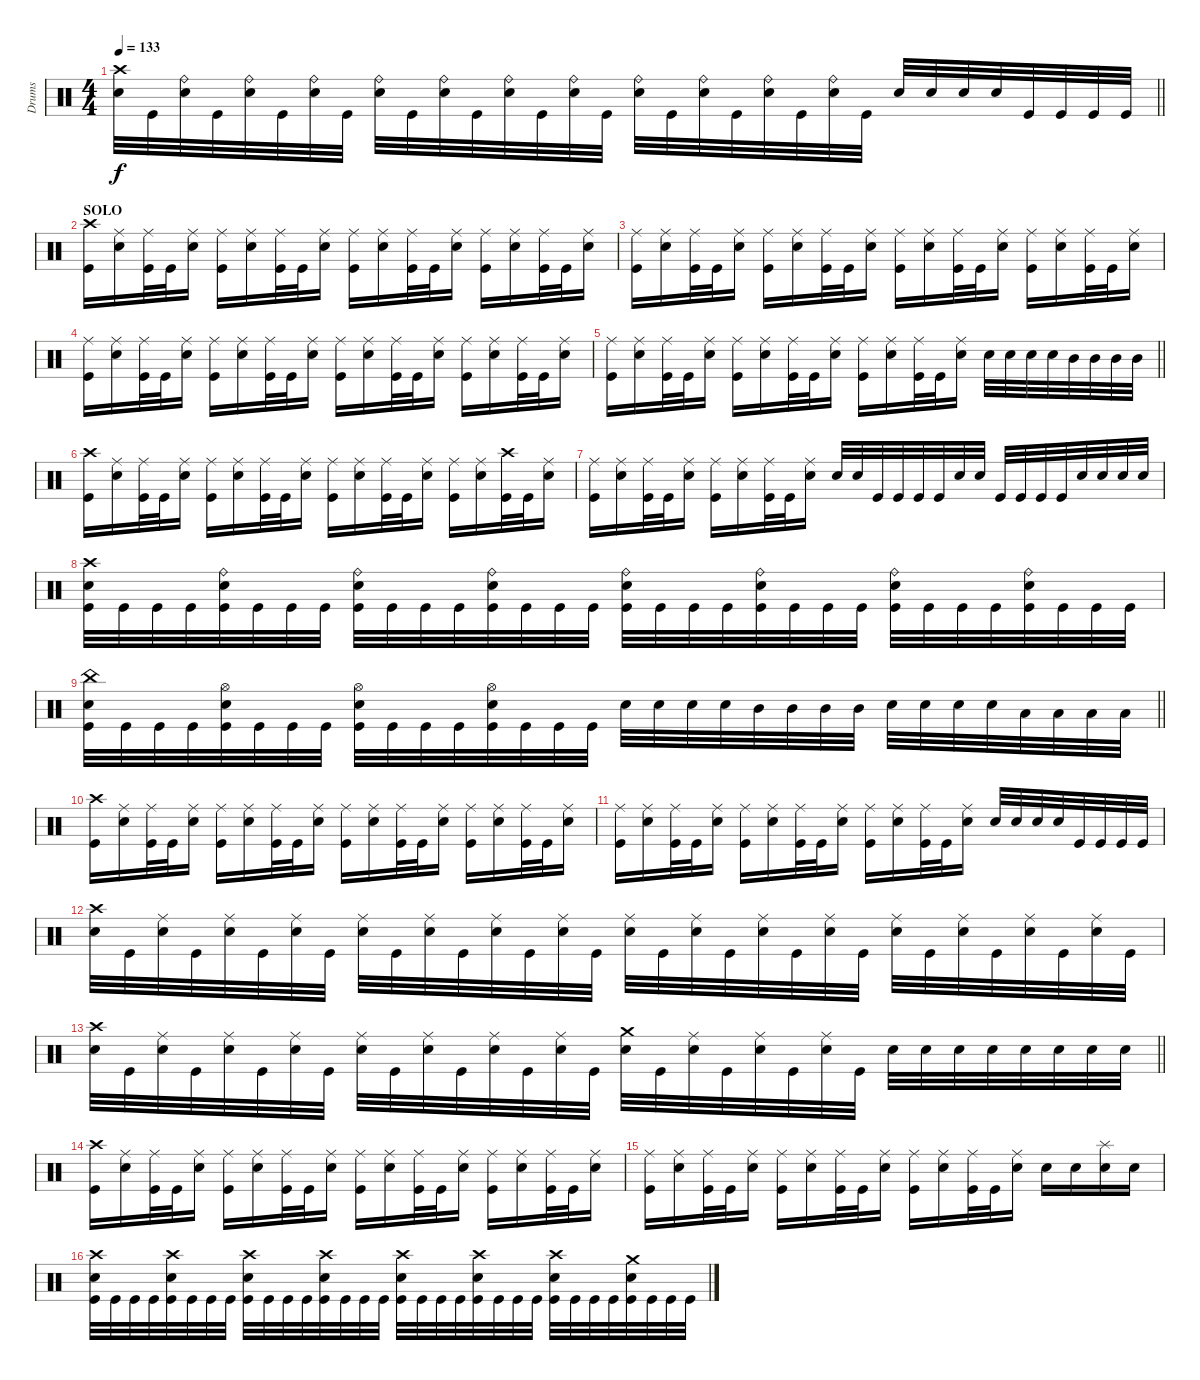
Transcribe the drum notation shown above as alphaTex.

\track ("Drums" "Drums") {instrument percussion}
\staff
\articulation defaults
\ts (4 4)
\tempo 133
\clef neutral
\barLineRight lightlight
\ks c
("Crash high (hit)" "Electric Snare (hit)").32{dy f} "Kick (hit)".32 ("Ride (bell)" "Electric Snare (hit)").32 "Kick (hit)".32 ("Ride (bell)" "Electric Snare (hit)").32 "Kick (hit)".32 ("Ride (bell)" "Electric Snare (hit)").32 "Kick (hit)".32 ("Ride (bell)" "Electric Snare (hit)").32 "Kick (hit)".32 ("Ride (bell)" "Electric Snare (hit)").32 "Kick (hit)".32 ("Ride (bell)" "Electric Snare (hit)").32 "Kick (hit)".32 ("Ride (bell)" "Electric Snare (hit)").32 "Kick (hit)".32 ("Ride (bell)" "Electric Snare (hit)").32 "Kick (hit)".32 ("Ride (bell)" "Electric Snare (hit)").32 "Kick (hit)".32 ("Ride (bell)" "Electric Snare (hit)").32 "Kick (hit)".32 ("Ride (bell)" "Electric Snare (hit)").32 "Kick (hit)".32 "Electric Snare (hit)".32 "Electric Snare (hit)".32 "Electric Snare (hit)".32 "Electric Snare (hit)".32 "Kick (hit)".32 "Kick (hit)".32 "Kick (hit)".32 "Kick (hit)".32 |
\section ("" "SOLO")
("Crash high (hit)" "Kick (hit)").16 ("Ride (middle)" "Electric Snare (hit)").16 ("Ride (middle)" "Kick (hit)").32 "Kick (hit)".32 ("Ride (middle)" "Electric Snare (hit)").16 ("Ride (middle)" "Kick (hit)").16 ("Ride (middle)" "Electric Snare (hit)").16 ("Ride (middle)" "Kick (hit)").32 "Kick (hit)".32 ("Ride (middle)" "Electric Snare (hit)").16 ("Ride (middle)" "Kick (hit)").16 ("Ride (middle)" "Electric Snare (hit)").16 ("Ride (middle)" "Kick (hit)").32 "Kick (hit)".32 ("Ride (middle)" "Electric Snare (hit)").16 ("Ride (middle)" "Kick (hit)").16 ("Ride (middle)" "Electric Snare (hit)").16 ("Ride (middle)" "Kick (hit)").32 "Kick (hit)".32 ("Ride (middle)" "Electric Snare (hit)").16 |
("Ride (middle)" "Kick (hit)").16 ("Ride (middle)" "Electric Snare (hit)").16 ("Ride (middle)" "Kick (hit)").32 "Kick (hit)".32 ("Ride (middle)" "Electric Snare (hit)").16 ("Ride (middle)" "Kick (hit)").16 ("Ride (middle)" "Electric Snare (hit)").16 ("Ride (middle)" "Kick (hit)").32 "Kick (hit)".32 ("Ride (middle)" "Electric Snare (hit)").16 ("Ride (middle)" "Kick (hit)").16 ("Ride (middle)" "Electric Snare (hit)").16 ("Ride (middle)" "Kick (hit)").32 "Kick (hit)".32 ("Ride (middle)" "Electric Snare (hit)").16 ("Ride (middle)" "Kick (hit)").16 ("Ride (middle)" "Electric Snare (hit)").16 ("Ride (middle)" "Kick (hit)").32 "Kick (hit)".32 ("Ride (middle)" "Electric Snare (hit)").16 |
("Ride (middle)" "Kick (hit)").16 ("Ride (middle)" "Electric Snare (hit)").16 ("Ride (middle)" "Kick (hit)").32 "Kick (hit)".32 ("Ride (middle)" "Electric Snare (hit)").16 ("Ride (middle)" "Kick (hit)").16 ("Ride (middle)" "Electric Snare (hit)").16 ("Ride (middle)" "Kick (hit)").32 "Kick (hit)".32 ("Ride (middle)" "Electric Snare (hit)").16 ("Ride (middle)" "Kick (hit)").16 ("Ride (middle)" "Electric Snare (hit)").16 ("Ride (middle)" "Kick (hit)").32 "Kick (hit)".32 ("Ride (middle)" "Electric Snare (hit)").16 ("Ride (middle)" "Kick (hit)").16 ("Ride (middle)" "Electric Snare (hit)").16 ("Ride (middle)" "Kick (hit)").32 "Kick (hit)".32 ("Ride (middle)" "Electric Snare (hit)").16 |
\barLineRight lightlight
("Ride (middle)" "Kick (hit)").16 ("Ride (middle)" "Electric Snare (hit)").16 ("Ride (middle)" "Kick (hit)").32 "Kick (hit)".32 ("Ride (middle)" "Electric Snare (hit)").16 ("Ride (middle)" "Kick (hit)").16 ("Ride (middle)" "Electric Snare (hit)").16 ("Ride (middle)" "Kick (hit)").32 "Kick (hit)".32 ("Ride (middle)" "Electric Snare (hit)").16 ("Ride (middle)" "Kick (hit)").16 ("Ride (middle)" "Electric Snare (hit)").16 ("Ride (middle)" "Kick (hit)").32 "Kick (hit)".32 ("Ride (middle)" "Electric Snare (hit)").16 "Electric Snare (hit)".32 "Electric Snare (hit)".32 "Electric Snare (hit)".32 "Electric Snare (hit)".32 "Mid Tom (hit)".32 "Mid Tom (hit)".32 "Mid Tom (hit)".32 "Mid Tom (hit)".32 |
("Crash high (hit)" "Kick (hit)").16 ("Ride (middle)" "Electric Snare (hit)").16 ("Ride (middle)" "Kick (hit)").32 "Kick (hit)".32 ("Ride (middle)" "Electric Snare (hit)").16 ("Ride (middle)" "Kick (hit)").16 ("Ride (middle)" "Electric Snare (hit)").16 ("Ride (middle)" "Kick (hit)").32 "Kick (hit)".32 ("Ride (middle)" "Electric Snare (hit)").16 ("Ride (middle)" "Kick (hit)").16 ("Ride (middle)" "Electric Snare (hit)").16 ("Ride (middle)" "Kick (hit)").32 "Kick (hit)".32 ("Ride (middle)" "Electric Snare (hit)").16 ("Ride (middle)" "Kick (hit)").16 ("Ride (middle)" "Electric Snare (hit)").16 ("Crash high (hit)" "Kick (hit)").32 "Kick (hit)".32 ("Ride (middle)" "Electric Snare (hit)").16 |
("Ride (middle)" "Kick (hit)").16 ("Ride (middle)" "Electric Snare (hit)").16 ("Ride (middle)" "Kick (hit)").32 "Kick (hit)".32 ("Ride (middle)" "Electric Snare (hit)").16 ("Ride (middle)" "Kick (hit)").16 ("Ride (middle)" "Electric Snare (hit)").16 ("Ride (middle)" "Kick (hit)").32 "Kick (hit)".32 ("Ride (middle)" "Electric Snare (hit)").16 "Electric Snare (hit)".32 "Electric Snare (hit)".32 "Kick (hit)".32 "Kick (hit)".32 "Kick (hit)".32 "Kick (hit)".32 "Electric Snare (hit)".32 "Electric Snare (hit)".32 "Kick (hit)".32 "Kick (hit)".32 "Kick (hit)".32 "Kick (hit)".32 "Electric Snare (hit)".32 "Electric Snare (hit)".32 "Electric Snare (hit)".32 "Electric Snare (hit)".32 |
("Crash high (hit)" "Electric Snare (hit)" "Kick (hit)").32 "Kick (hit)".32 "Kick (hit)".32 "Kick (hit)".32 ("Ride (bell)" "Electric Snare (hit)" "Kick (hit)").32 "Kick (hit)".32 "Kick (hit)".32 "Kick (hit)".32 ("Ride (bell)" "Electric Snare (hit)" "Kick (hit)").32 "Kick (hit)".32 "Kick (hit)".32 "Kick (hit)".32 ("Ride (bell)" "Electric Snare (hit)" "Kick (hit)").32 "Kick (hit)".32 "Kick (hit)".32 "Kick (hit)".32 ("Ride (bell)" "Electric Snare (hit)" "Kick (hit)").32 "Kick (hit)".32 "Kick (hit)".32 "Kick (hit)".32 ("Ride (bell)" "Electric Snare (hit)" "Kick (hit)").32 "Kick (hit)".32 "Kick (hit)".32 "Kick (hit)".32 ("Ride (bell)" "Electric Snare (hit)" "Kick (hit)").32 "Kick (hit)".32 "Kick (hit)".32 "Kick (hit)".32 ("Ride (bell)" "Electric Snare (hit)" "Kick (hit)").32 "Kick (hit)".32 "Kick (hit)".32 "Kick (hit)".32 |
\barLineRight lightlight
("China (hit)" "Electric Snare (hit)" "Kick (hit)").32 "Kick (hit)".32 "Kick (hit)".32 "Kick (hit)".32 ("Hi-Hat (open)" "Electric Snare (hit)" "Kick (hit)").32 "Kick (hit)".32 "Kick (hit)".32 "Kick (hit)".32 ("Hi-Hat (open)" "Electric Snare (hit)" "Kick (hit)").32 "Kick (hit)".32 "Kick (hit)".32 "Kick (hit)".32 ("Hi-Hat (open)" "Electric Snare (hit)" "Kick (hit)").32 "Kick (hit)".32 "Kick (hit)".32 "Kick (hit)".32 "Electric Snare (hit)".32 "Electric Snare (hit)".32 "Electric Snare (hit)".32 "Electric Snare (hit)".32 "Mid Tom (hit)".32 "Mid Tom (hit)".32 "Mid Tom (hit)".32 "Mid Tom (hit)".32 "Electric Snare (hit)".32 "Electric Snare (hit)".32 "Electric Snare (hit)".32 "Electric Snare (hit)".32 "Low Tom (hit)".32 "Low Tom (hit)".32 "Low Tom (hit)".32 "Low Tom (hit)".32 |
("Crash high (hit)" "Kick (hit)").16 ("Ride (middle)" "Electric Snare (hit)").16 ("Ride (middle)" "Kick (hit)").32 "Kick (hit)".32 ("Ride (middle)" "Electric Snare (hit)").16 ("Ride (middle)" "Kick (hit)").16 ("Ride (middle)" "Electric Snare (hit)").16 ("Ride (middle)" "Kick (hit)").32 "Kick (hit)".32 ("Ride (middle)" "Electric Snare (hit)").16 ("Ride (middle)" "Kick (hit)").16 ("Ride (middle)" "Electric Snare (hit)").16 ("Ride (middle)" "Kick (hit)").32 "Kick (hit)".32 ("Ride (middle)" "Electric Snare (hit)").16 ("Ride (middle)" "Kick (hit)").16 ("Ride (middle)" "Electric Snare (hit)").16 ("Ride (middle)" "Kick (hit)").32 "Kick (hit)".32 ("Ride (middle)" "Electric Snare (hit)").16 |
("Ride (middle)" "Kick (hit)").16 ("Ride (middle)" "Electric Snare (hit)").16 ("Ride (middle)" "Kick (hit)").32 "Kick (hit)".32 ("Ride (middle)" "Electric Snare (hit)").16 ("Ride (middle)" "Kick (hit)").16 ("Ride (middle)" "Electric Snare (hit)").16 ("Ride (middle)" "Kick (hit)").32 "Kick (hit)".32 ("Ride (middle)" "Electric Snare (hit)").16 ("Ride (middle)" "Kick (hit)").16 ("Ride (middle)" "Electric Snare (hit)").16 ("Ride (middle)" "Kick (hit)").32 "Kick (hit)".32 ("Ride (middle)" "Electric Snare (hit)").16 "Electric Snare (hit)".32 "Electric Snare (hit)".32 "Electric Snare (hit)".32 "Electric Snare (hit)".32 "Kick (hit)".32 "Kick (hit)".32 "Kick (hit)".32 "Kick (hit)".32 |
("Crash high (hit)" "Electric Snare (hit)").32 "Kick (hit)".32 ("Ride (middle)" "Electric Snare (hit)").32 "Kick (hit)".32 ("Ride (middle)" "Electric Snare (hit)").32 "Kick (hit)".32 ("Ride (middle)" "Electric Snare (hit)").32 "Kick (hit)".32 ("Ride (middle)" "Electric Snare (hit)").32 "Kick (hit)".32 ("Ride (middle)" "Electric Snare (hit)").32 "Kick (hit)".32 ("Ride (middle)" "Electric Snare (hit)").32 "Kick (hit)".32 ("Ride (middle)" "Electric Snare (hit)").32 "Kick (hit)".32 ("Ride (middle)" "Electric Snare (hit)").32 "Kick (hit)".32 ("Ride (middle)" "Electric Snare (hit)").32 "Kick (hit)".32 ("Ride (middle)" "Electric Snare (hit)").32 "Kick (hit)".32 ("Ride (middle)" "Electric Snare (hit)").32 "Kick (hit)".32 ("Ride (middle)" "Electric Snare (hit)").32 "Kick (hit)".32 ("Ride (middle)" "Electric Snare (hit)").32 "Kick (hit)".32 ("Ride (middle)" "Electric Snare (hit)").32 "Kick (hit)".32 ("Ride (middle)" "Electric Snare (hit)").32 "Kick (hit)".32 |
\barLineRight lightlight
("Crash high (hit)" "Electric Snare (hit)").32 "Kick (hit)".32 ("Ride (middle)" "Electric Snare (hit)").32 "Kick (hit)".32 ("Ride (middle)" "Electric Snare (hit)").32 "Kick (hit)".32 ("Ride (middle)" "Electric Snare (hit)").32 "Kick (hit)".32 ("Ride (middle)" "Electric Snare (hit)").32 "Kick (hit)".32 ("Ride (middle)" "Electric Snare (hit)").32 "Kick (hit)".32 ("Ride (middle)" "Electric Snare (hit)").32 "Kick (hit)".32 ("Ride (middle)" "Electric Snare (hit)").32 "Kick (hit)".32 ("Crash medium (hit)" "Electric Snare (hit)").32 "Kick (hit)".32 ("Ride (middle)" "Electric Snare (hit)").32 "Kick (hit)".32 ("Ride (middle)" "Electric Snare (hit)").32 "Kick (hit)".32 ("Ride (middle)" "Electric Snare (hit)").32 "Kick (hit)".32 "Electric Snare (hit)".32 "Electric Snare (hit)".32 "Electric Snare (hit)".32 "Electric Snare (hit)".32 "Electric Snare (hit)".32 "Electric Snare (hit)".32 "Electric Snare (hit)".32 "Electric Snare (hit)".32 |
("Crash high (hit)" "Kick (hit)").16 ("Ride (middle)" "Electric Snare (hit)").16 ("Ride (middle)" "Kick (hit)").32 "Kick (hit)".32 ("Ride (middle)" "Electric Snare (hit)").16 ("Ride (middle)" "Kick (hit)").16 ("Ride (middle)" "Electric Snare (hit)").16 ("Ride (middle)" "Kick (hit)").32 "Kick (hit)".32 ("Ride (middle)" "Electric Snare (hit)").16 ("Ride (middle)" "Kick (hit)").16 ("Ride (middle)" "Electric Snare (hit)").16 ("Ride (middle)" "Kick (hit)").32 "Kick (hit)".32 ("Ride (middle)" "Electric Snare (hit)").16 ("Ride (middle)" "Kick (hit)").16 ("Ride (middle)" "Electric Snare (hit)").16 ("Ride (middle)" "Kick (hit)").32 "Kick (hit)".32 ("Ride (middle)" "Electric Snare (hit)").16 |
("Ride (middle)" "Kick (hit)").16 ("Ride (middle)" "Electric Snare (hit)").16 ("Ride (middle)" "Kick (hit)").32 "Kick (hit)".32 ("Ride (middle)" "Electric Snare (hit)").16 ("Ride (middle)" "Kick (hit)").16 ("Ride (middle)" "Electric Snare (hit)").16 ("Ride (middle)" "Kick (hit)").32 "Kick (hit)".32 ("Ride (middle)" "Electric Snare (hit)").16 ("Ride (middle)" "Kick (hit)").16 ("Ride (middle)" "Electric Snare (hit)").16 ("Ride (middle)" "Kick (hit)").32 "Kick (hit)".32 ("Ride (middle)" "Electric Snare (hit)").16 "Electric Snare (hit)".16 "Electric Snare (hit)".16 ("Splash (hit)" "Electric Snare (hit)").16 "Electric Snare (hit)".16 |
("Crash high (hit)" "Electric Snare (hit)" "Kick (hit)").32 "Kick (hit)".32 "Kick (hit)".32 "Kick (hit)".32 ("Crash high (hit)" "Electric Snare (hit)" "Kick (hit)").32 "Kick (hit)".32 "Kick (hit)".32 "Kick (hit)".32 ("Crash high (hit)" "Electric Snare (hit)" "Kick (hit)").32 "Kick (hit)".32 "Kick (hit)".32 "Kick (hit)".32 ("Crash high (hit)" "Electric Snare (hit)" "Kick (hit)").32 "Kick (hit)".32 "Kick (hit)".32 "Kick (hit)".32 ("Crash high (hit)" "Electric Snare (hit)" "Kick (hit)").32 "Kick (hit)".32 "Kick (hit)".32 "Kick (hit)".32 ("Crash high (hit)" "Electric Snare (hit)" "Kick (hit)").32 "Kick (hit)".32 "Kick (hit)".32 "Kick (hit)".32 ("Crash high (hit)" "Electric Snare (hit)" "Kick (hit)").32 "Kick (hit)".32 "Kick (hit)".32 "Kick (hit)".32 ("Crash medium (hit)" "Electric Snare (hit)" "Kick (hit)").32 "Kick (hit)".32 "Kick (hit)".32 "Kick (hit)".32
